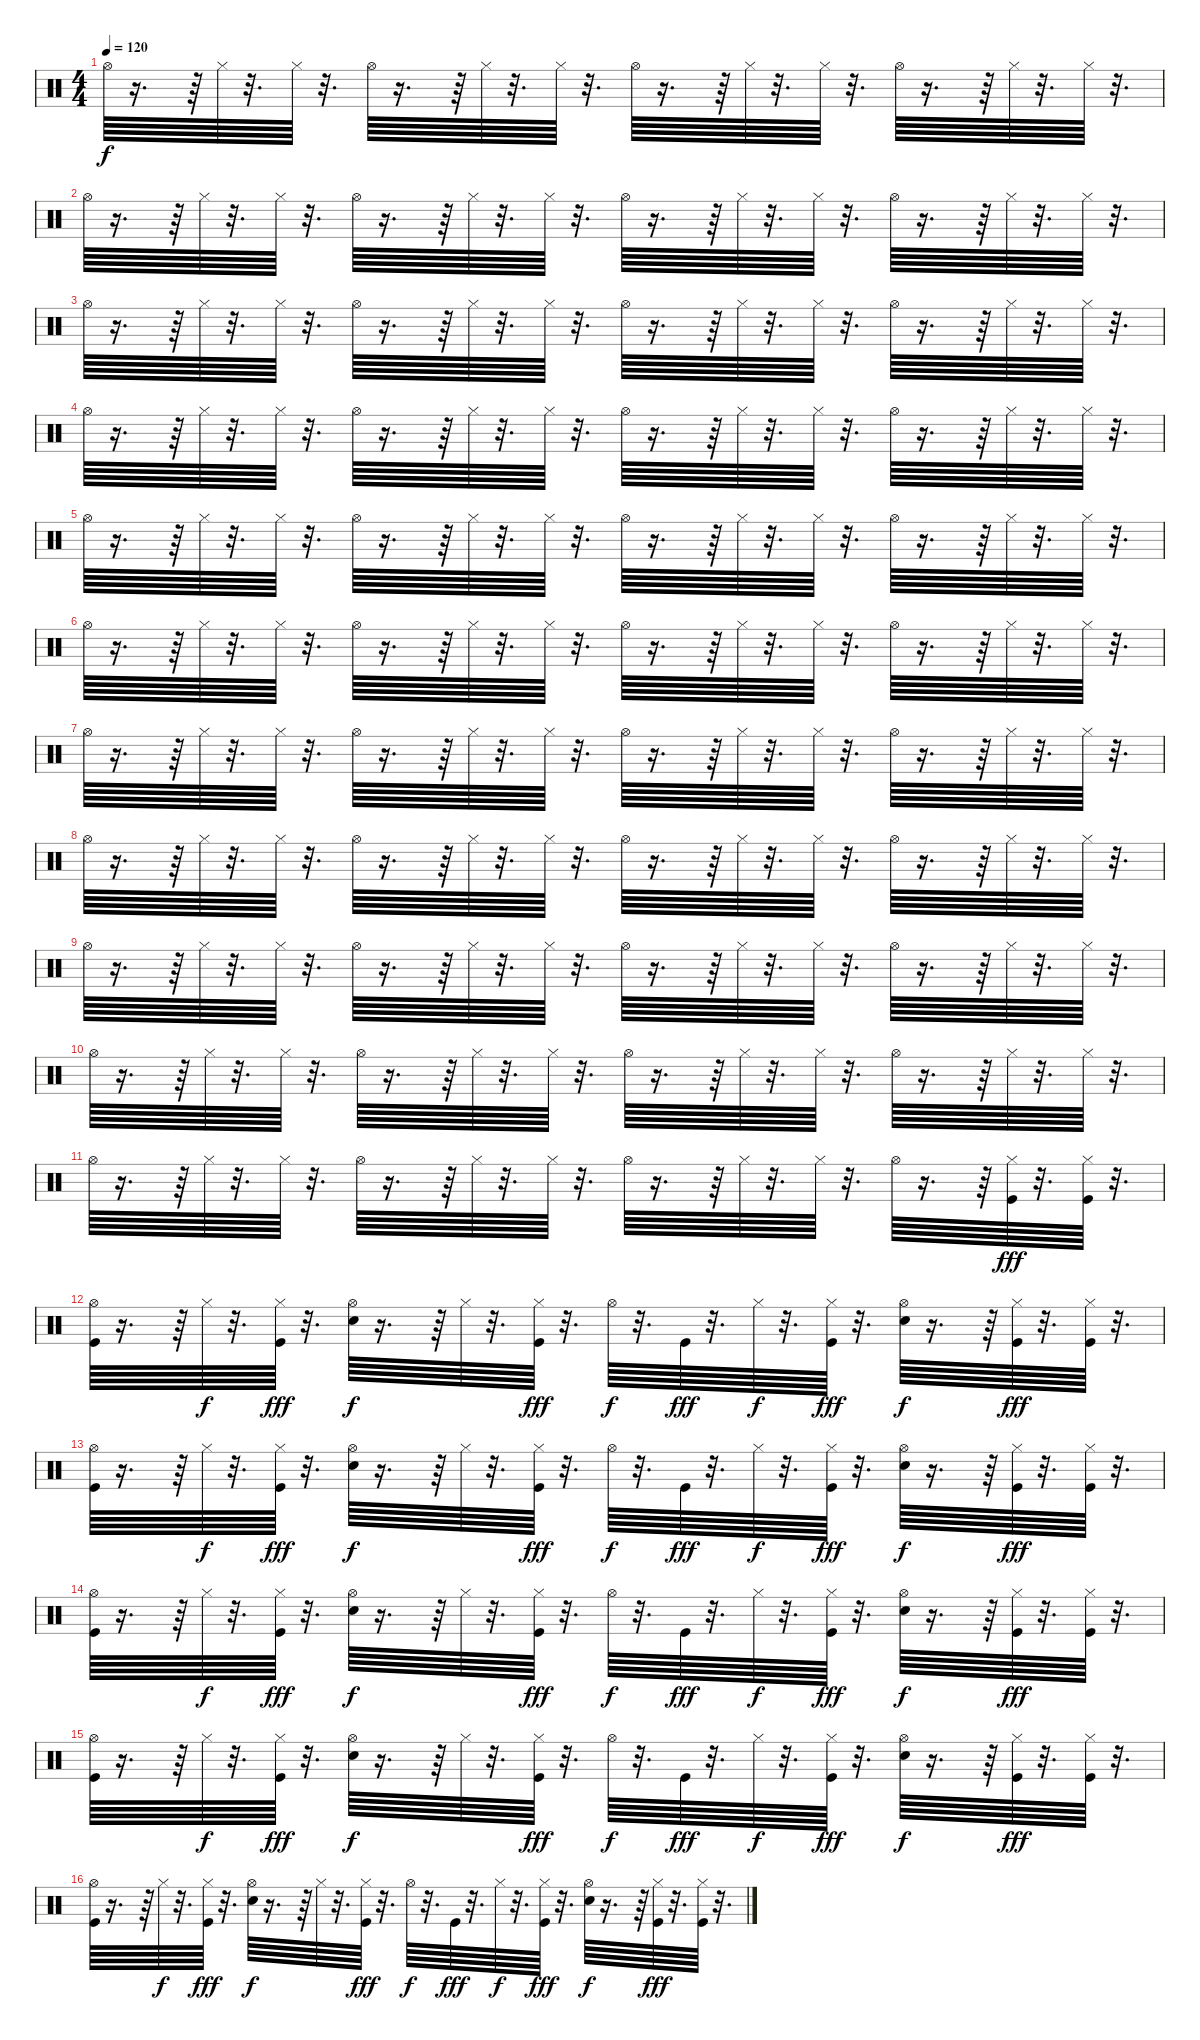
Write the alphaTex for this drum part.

\track "" {instrument percussion}
\staff {score}
\articulation defaults
\ts (4 4)
\tempo 120
\clef neutral
\ks c "Hi-Hat (open)".64{dy f}
r.16{d} r.64 "Hi-Hat (closed)".64 r.32{d} "Hi-Hat (closed)".64 r.32{d} "Hi-Hat (open)".64 r.16{d} r.64 "Hi-Hat (closed)".64 r.32{d} "Hi-Hat (closed)".64 r.32{d} "Hi-Hat (open)".64 r.16{d} r.64 "Hi-Hat (closed)".64 r.32{d} "Hi-Hat (closed)".64 r.32{d} "Hi-Hat (open)".64 r.16{d} r.64 "Hi-Hat (closed)".64 r.32{d} "Hi-Hat (closed)".64 r.32{d} |
"Hi-Hat (open)".64 r.16{d} r.64 "Hi-Hat (closed)".64 r.32{d} "Hi-Hat (closed)".64 r.32{d} "Hi-Hat (open)".64 r.16{d} r.64 "Hi-Hat (closed)".64 r.32{d} "Hi-Hat (closed)".64 r.32{d} "Hi-Hat (open)".64 r.16{d} r.64 "Hi-Hat (closed)".64 r.32{d} "Hi-Hat (closed)".64 r.32{d} "Hi-Hat (open)".64 r.16{d} r.64 "Hi-Hat (closed)".64 r.32{d} "Hi-Hat (closed)".64 r.32{d} |
"Hi-Hat (open)".64 r.16{d} r.64 "Hi-Hat (closed)".64 r.32{d} "Hi-Hat (closed)".64 r.32{d} "Hi-Hat (open)".64 r.16{d} r.64 "Hi-Hat (closed)".64 r.32{d} "Hi-Hat (closed)".64 r.32{d} "Hi-Hat (open)".64 r.16{d} r.64 "Hi-Hat (closed)".64 r.32{d} "Hi-Hat (closed)".64 r.32{d} "Hi-Hat (open)".64 r.16{d} r.64 "Hi-Hat (closed)".64 r.32{d} "Hi-Hat (closed)".64 r.32{d} |
"Hi-Hat (open)".64 r.16{d} r.64 "Hi-Hat (closed)".64 r.32{d} "Hi-Hat (closed)".64 r.32{d} "Hi-Hat (open)".64 r.16{d} r.64 "Hi-Hat (closed)".64 r.32{d} "Hi-Hat (closed)".64 r.32{d} "Hi-Hat (open)".64 r.16{d} r.64 "Hi-Hat (closed)".64 r.32{d} "Hi-Hat (closed)".64 r.32{d} "Hi-Hat (open)".64 r.16{d} r.64 "Hi-Hat (closed)".64 r.32{d} "Hi-Hat (closed)".64 r.32{d} |
"Hi-Hat (open)".64 r.16{d} r.64 "Hi-Hat (closed)".64 r.32{d} "Hi-Hat (closed)".64 r.32{d} "Hi-Hat (open)".64 r.16{d} r.64 "Hi-Hat (closed)".64 r.32{d} "Hi-Hat (closed)".64 r.32{d} "Hi-Hat (open)".64 r.16{d} r.64 "Hi-Hat (closed)".64 r.32{d} "Hi-Hat (closed)".64 r.32{d} "Hi-Hat (open)".64 r.16{d} r.64 "Hi-Hat (closed)".64 r.32{d} "Hi-Hat (closed)".64 r.32{d} |
"Hi-Hat (open)".64 r.16{d} r.64 "Hi-Hat (closed)".64 r.32{d} "Hi-Hat (closed)".64 r.32{d} "Hi-Hat (open)".64 r.16{d} r.64 "Hi-Hat (closed)".64 r.32{d} "Hi-Hat (closed)".64 r.32{d} "Hi-Hat (open)".64 r.16{d} r.64 "Hi-Hat (closed)".64 r.32{d} "Hi-Hat (closed)".64 r.32{d} "Hi-Hat (open)".64 r.16{d} r.64 "Hi-Hat (closed)".64 r.32{d} "Hi-Hat (closed)".64 r.32{d} |
"Hi-Hat (open)".64 r.16{d} r.64 "Hi-Hat (closed)".64 r.32{d} "Hi-Hat (closed)".64 r.32{d} "Hi-Hat (open)".64 r.16{d} r.64 "Hi-Hat (closed)".64 r.32{d} "Hi-Hat (closed)".64 r.32{d} "Hi-Hat (open)".64 r.16{d} r.64 "Hi-Hat (closed)".64 r.32{d} "Hi-Hat (closed)".64 r.32{d} "Hi-Hat (open)".64 r.16{d} r.64 "Hi-Hat (closed)".64 r.32{d} "Hi-Hat (closed)".64 r.32{d} |
"Hi-Hat (open)".64 r.16{d} r.64 "Hi-Hat (closed)".64 r.32{d} "Hi-Hat (closed)".64 r.32{d} "Hi-Hat (open)".64 r.16{d} r.64 "Hi-Hat (closed)".64 r.32{d} "Hi-Hat (closed)".64 r.32{d} "Hi-Hat (open)".64 r.16{d} r.64 "Hi-Hat (closed)".64 r.32{d} "Hi-Hat (closed)".64 r.32{d} "Hi-Hat (open)".64 r.16{d} r.64 "Hi-Hat (closed)".64 r.32{d} "Hi-Hat (closed)".64 r.32{d} |
"Hi-Hat (open)".64 r.16{d} r.64 "Hi-Hat (closed)".64 r.32{d} "Hi-Hat (closed)".64 r.32{d} "Hi-Hat (open)".64 r.16{d} r.64 "Hi-Hat (closed)".64 r.32{d} "Hi-Hat (closed)".64 r.32{d} "Hi-Hat (open)".64 r.16{d} r.64 "Hi-Hat (closed)".64 r.32{d} "Hi-Hat (closed)".64 r.32{d} "Hi-Hat (open)".64 r.16{d} r.64 "Hi-Hat (closed)".64 r.32{d} "Hi-Hat (closed)".64 r.32{d} |
"Hi-Hat (open)".64 r.16{d} r.64 "Hi-Hat (closed)".64 r.32{d} "Hi-Hat (closed)".64 r.32{d} "Hi-Hat (open)".64 r.16{d} r.64 "Hi-Hat (closed)".64 r.32{d} "Hi-Hat (closed)".64 r.32{d} "Hi-Hat (open)".64 r.16{d} r.64 "Hi-Hat (closed)".64 r.32{d} "Hi-Hat (closed)".64 r.32{d} "Hi-Hat (open)".64 r.16{d} r.64 "Hi-Hat (closed)".64 r.32{d} "Hi-Hat (closed)".64 r.32{d} |
"Hi-Hat (open)".64 r.16{d} r.64 "Hi-Hat (closed)".64 r.32{d} "Hi-Hat (closed)".64 r.32{d} "Hi-Hat (open)".64 r.16{d} r.64 "Hi-Hat (closed)".64 r.32{d} "Hi-Hat (closed)".64 r.32{d} "Hi-Hat (open)".64 r.16{d} r.64 "Hi-Hat (closed)".64 r.32{d} "Hi-Hat (closed)".64 r.32{d} "Hi-Hat (open)".64 r.16{d} r.64 ("Kick (hit)" "Hi-Hat (closed)").64{dy fff} r.32{d} ("Kick (hit)" "Hi-Hat (closed)").64 r.32{d} |
("Kick (hit)" "Hi-Hat (open)").64 r.16{d} r.64 "Hi-Hat (closed)".64{dy f} r.32{d} ("Kick (hit)" "Hi-Hat (closed)").64{dy fff} r.32{d} ("Snare (hit) 2" "Hi-Hat (open)").64{dy f} r.16{d} r.64 "Hi-Hat (closed)".64 r.32{d} ("Kick (hit)" "Hi-Hat (closed)").64{dy fff} r.32{d} "Hi-Hat (open)".64{dy f} r.32{d} "Kick (hit)".64{dy fff} r.32{d} "Hi-Hat (closed)".64{dy f} r.32{d} ("Kick (hit)" "Hi-Hat (closed)").64{dy fff} r.32{d} ("Snare (hit) 2" "Hi-Hat (open)").64{dy f} r.16{d} r.64 ("Kick (hit)" "Hi-Hat (closed)").64{dy fff} r.32{d} ("Kick (hit)" "Hi-Hat (closed)").64 r.32{d} |
("Kick (hit)" "Hi-Hat (open)").64 r.16{d} r.64 "Hi-Hat (closed)".64{dy f} r.32{d} ("Kick (hit)" "Hi-Hat (closed)").64{dy fff} r.32{d} ("Snare (hit) 2" "Hi-Hat (open)").64{dy f} r.16{d} r.64 "Hi-Hat (closed)".64 r.32{d} ("Kick (hit)" "Hi-Hat (closed)").64{dy fff} r.32{d} "Hi-Hat (open)".64{dy f} r.32{d} "Kick (hit)".64{dy fff} r.32{d} "Hi-Hat (closed)".64{dy f} r.32{d} ("Kick (hit)" "Hi-Hat (closed)").64{dy fff} r.32{d} ("Snare (hit) 2" "Hi-Hat (open)").64{dy f} r.16{d} r.64 ("Kick (hit)" "Hi-Hat (closed)").64{dy fff} r.32{d} ("Kick (hit)" "Hi-Hat (closed)").64 r.32{d} |
("Kick (hit)" "Hi-Hat (open)").64 r.16{d} r.64 "Hi-Hat (closed)".64{dy f} r.32{d} ("Kick (hit)" "Hi-Hat (closed)").64{dy fff} r.32{d} ("Snare (hit) 2" "Hi-Hat (open)").64{dy f} r.16{d} r.64 "Hi-Hat (closed)".64 r.32{d} ("Kick (hit)" "Hi-Hat (closed)").64{dy fff} r.32{d} "Hi-Hat (open)".64{dy f} r.32{d} "Kick (hit)".64{dy fff} r.32{d} "Hi-Hat (closed)".64{dy f} r.32{d} ("Kick (hit)" "Hi-Hat (closed)").64{dy fff} r.32{d} ("Snare (hit) 2" "Hi-Hat (open)").64{dy f} r.16{d} r.64 ("Kick (hit)" "Hi-Hat (closed)").64{dy fff} r.32{d} ("Kick (hit)" "Hi-Hat (closed)").64 r.32{d} |
("Kick (hit)" "Hi-Hat (open)").64 r.16{d} r.64 "Hi-Hat (closed)".64{dy f} r.32{d} ("Kick (hit)" "Hi-Hat (closed)").64{dy fff} r.32{d} ("Snare (hit) 2" "Hi-Hat (open)").64{dy f} r.16{d} r.64 "Hi-Hat (closed)".64 r.32{d} ("Kick (hit)" "Hi-Hat (closed)").64{dy fff} r.32{d} "Hi-Hat (open)".64{dy f} r.32{d} "Kick (hit)".64{dy fff} r.32{d} "Hi-Hat (closed)".64{dy f} r.32{d} ("Kick (hit)" "Hi-Hat (closed)").64{dy fff} r.32{d} ("Snare (hit) 2" "Hi-Hat (open)").64{dy f} r.16{d} r.64 ("Kick (hit)" "Hi-Hat (closed)").64{dy fff} r.32{d} ("Kick (hit)" "Hi-Hat (closed)").64 r.32{d} |
("Kick (hit)" "Hi-Hat (open)").64 r.16{d} r.64 "Hi-Hat (closed)".64{dy f} r.32{d} ("Kick (hit)" "Hi-Hat (closed)").64{dy fff} r.32{d} ("Snare (hit) 2" "Hi-Hat (open)").64{dy f} r.16{d} r.64 "Hi-Hat (closed)".64 r.32{d} ("Kick (hit)" "Hi-Hat (closed)").64{dy fff} r.32{d} "Hi-Hat (open)".64{dy f} r.32{d} "Kick (hit)".64{dy fff} r.32{d} "Hi-Hat (closed)".64{dy f} r.32{d} ("Kick (hit)" "Hi-Hat (closed)").64{dy fff} r.32{d} ("Snare (hit) 2" "Hi-Hat (open)").64{dy f} r.16{d} r.64 ("Kick (hit)" "Hi-Hat (closed)").64{dy fff} r.32{d} ("Kick (hit)" "Hi-Hat (closed)").64 r.32{d}
